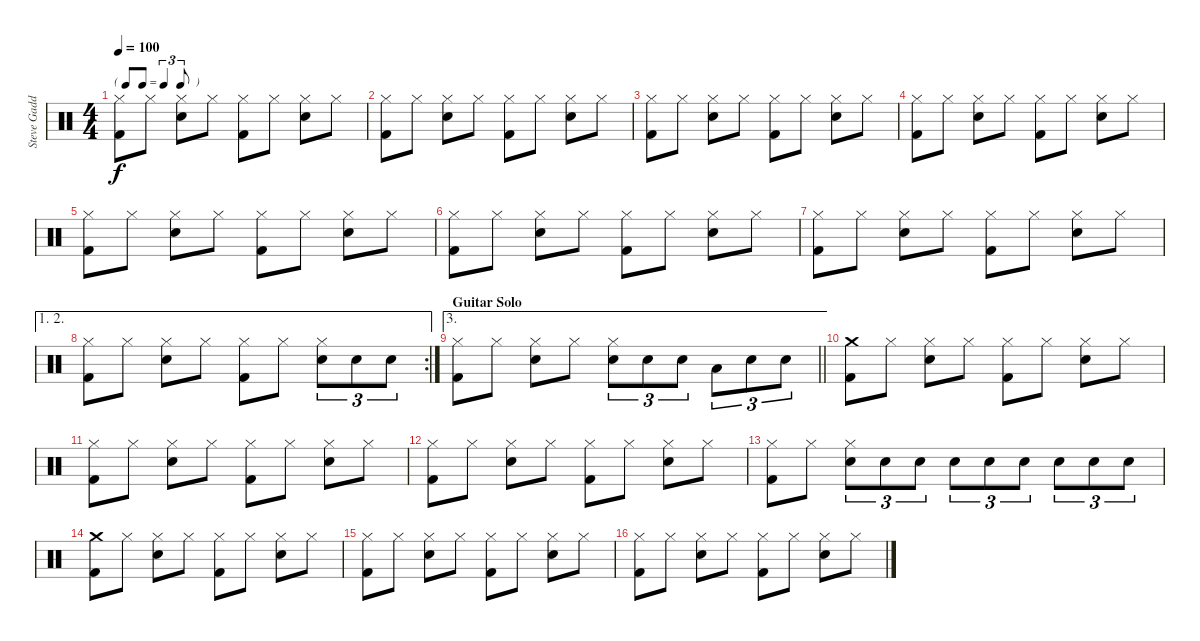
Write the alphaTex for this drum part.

\track ("Steve Gadd Drums" "Steve Gadd") {instrument percussion}
\staff {score}
\articulation defaults
\ts (4 4)
\tf triplet8th
\tempo 100
\clef neutral
\ks c
("Hi-Hat (closed)" "Kick (hit) 2").8{dy f} "Hi-Hat (closed)".8 ("Hi-Hat (closed)" "Snare (hit) 2").8 "Hi-Hat (closed)".8 ("Hi-Hat (closed)" "Kick (hit) 2").8 "Hi-Hat (closed)".8 ("Hi-Hat (closed)" "Snare (hit) 2").8 "Hi-Hat (closed)".8 |
("Hi-Hat (closed)" "Kick (hit) 2").8 "Hi-Hat (closed)".8 ("Hi-Hat (closed)" "Snare (hit) 2").8 "Hi-Hat (closed)".8 ("Hi-Hat (closed)" "Kick (hit) 2").8 "Hi-Hat (closed)".8 ("Hi-Hat (closed)" "Snare (hit) 2").8 "Hi-Hat (closed)".8 |
("Hi-Hat (closed)" "Kick (hit) 2").8 "Hi-Hat (closed)".8 ("Hi-Hat (closed)" "Snare (hit) 2").8 "Hi-Hat (closed)".8 ("Hi-Hat (closed)" "Kick (hit) 2").8 "Hi-Hat (closed)".8 ("Hi-Hat (closed)" "Snare (hit) 2").8 "Hi-Hat (closed)".8 |
("Hi-Hat (closed)" "Kick (hit) 2").8 "Hi-Hat (closed)".8 ("Hi-Hat (closed)" "Snare (hit) 2").8 "Hi-Hat (closed)".8 ("Hi-Hat (closed)" "Kick (hit) 2").8 "Hi-Hat (closed)".8 ("Hi-Hat (closed)" "Snare (hit) 2").8 "Hi-Hat (closed)".8 |
("Hi-Hat (closed)" "Kick (hit) 2").8 "Hi-Hat (closed)".8 ("Hi-Hat (closed)" "Snare (hit) 2").8 "Hi-Hat (closed)".8 ("Hi-Hat (closed)" "Kick (hit) 2").8 "Hi-Hat (closed)".8 ("Hi-Hat (closed)" "Snare (hit) 2").8 "Hi-Hat (closed)".8 |
("Hi-Hat (closed)" "Kick (hit) 2").8 "Hi-Hat (closed)".8 ("Hi-Hat (closed)" "Snare (hit) 2").8 "Hi-Hat (closed)".8 ("Hi-Hat (closed)" "Kick (hit) 2").8 "Hi-Hat (closed)".8 ("Hi-Hat (closed)" "Snare (hit) 2").8 "Hi-Hat (closed)".8 |
("Hi-Hat (closed)" "Kick (hit) 2").8 "Hi-Hat (closed)".8 ("Hi-Hat (closed)" "Snare (hit) 2").8 "Hi-Hat (closed)".8 ("Hi-Hat (closed)" "Kick (hit) 2").8 "Hi-Hat (closed)".8 ("Hi-Hat (closed)" "Snare (hit) 2").8 "Hi-Hat (closed)".8 |
\ae (1 2)
\rc 2
("Hi-Hat (closed)" "Kick (hit) 2").8 "Hi-Hat (closed)".8 ("Hi-Hat (closed)" "Snare (hit) 2").8 "Hi-Hat (closed)".8 ("Hi-Hat (closed)" "Kick (hit) 2").8 "Hi-Hat (closed)".8 ("Hi-Hat (closed)" "Snare (hit) 2").8{tu (3 2)} "Snare (hit) 2".8{tu (3 2)} "Snare (hit) 2".8{tu (3 2)} |
\ae 3
\section ("" "Guitar Solo")
\barLineRight lightlight
("Hi-Hat (closed)" "Kick (hit) 2").8 "Hi-Hat (closed)".8 ("Hi-Hat (closed)" "Snare (hit) 2").8 "Hi-Hat (closed)".8 ("Hi-Hat (closed)" "Snare (hit) 2").8{tu (3 2)} "Snare (hit) 2".8{tu (3 2)} "Snare (hit) 2".8{tu (3 2)} "Low Tom (hit)".8{tu (3 2)} "Snare (hit) 2".8{tu (3 2)} "Snare (hit) 2".8{tu (3 2)} |
("Crash medium (hit)" "Kick (hit) 2").8 "Hi-Hat (closed)".8 ("Hi-Hat (closed)" "Snare (hit) 2").8 "Hi-Hat (closed)".8 ("Hi-Hat (closed)" "Kick (hit) 2").8 "Hi-Hat (closed)".8 ("Hi-Hat (closed)" "Snare (hit) 2").8 "Hi-Hat (closed)".8 |
("Hi-Hat (closed)" "Kick (hit) 2").8 "Hi-Hat (closed)".8 ("Hi-Hat (closed)" "Snare (hit) 2").8 "Hi-Hat (closed)".8 ("Hi-Hat (closed)" "Kick (hit) 2").8 "Hi-Hat (closed)".8 ("Hi-Hat (closed)" "Snare (hit) 2").8 "Hi-Hat (closed)".8 |
("Hi-Hat (closed)" "Kick (hit) 2").8 "Hi-Hat (closed)".8 ("Hi-Hat (closed)" "Snare (hit) 2").8 "Hi-Hat (closed)".8 ("Hi-Hat (closed)" "Kick (hit) 2").8 "Hi-Hat (closed)".8 ("Hi-Hat (closed)" "Snare (hit) 2").8 "Hi-Hat (closed)".8 |
("Hi-Hat (closed)" "Kick (hit) 2").8 "Hi-Hat (closed)".8 ("Hi-Hat (closed)" "Snare (hit) 2").8{tu (3 2)} "Snare (hit) 2".8{tu (3 2)} "Snare (hit) 2".8{tu (3 2)} "Snare (hit) 2".8{tu (3 2)} "Snare (hit) 2".8{tu (3 2)} "Snare (hit) 2".8{tu (3 2)} "Snare (hit) 2".8{tu (3 2)} "Snare (hit) 2".8{tu (3 2)} "Snare (hit) 2".8{tu (3 2)} |
("Crash medium (hit)" "Kick (hit) 2").8 "Hi-Hat (closed)".8 ("Hi-Hat (closed)" "Snare (hit) 2").8 "Hi-Hat (closed)".8 ("Hi-Hat (closed)" "Kick (hit) 2").8 "Hi-Hat (closed)".8 ("Hi-Hat (closed)" "Snare (hit) 2").8 "Hi-Hat (closed)".8 |
("Hi-Hat (closed)" "Kick (hit) 2").8 "Hi-Hat (closed)".8 ("Hi-Hat (closed)" "Snare (hit) 2").8 "Hi-Hat (closed)".8 ("Hi-Hat (closed)" "Kick (hit) 2").8 "Hi-Hat (closed)".8 ("Hi-Hat (closed)" "Snare (hit) 2").8 "Hi-Hat (closed)".8 |
("Hi-Hat (closed)" "Kick (hit) 2").8 "Hi-Hat (closed)".8 ("Hi-Hat (closed)" "Snare (hit) 2").8 "Hi-Hat (closed)".8 ("Hi-Hat (closed)" "Kick (hit) 2").8 "Hi-Hat (closed)".8 ("Hi-Hat (closed)" "Snare (hit) 2").8 "Hi-Hat (closed)".8
